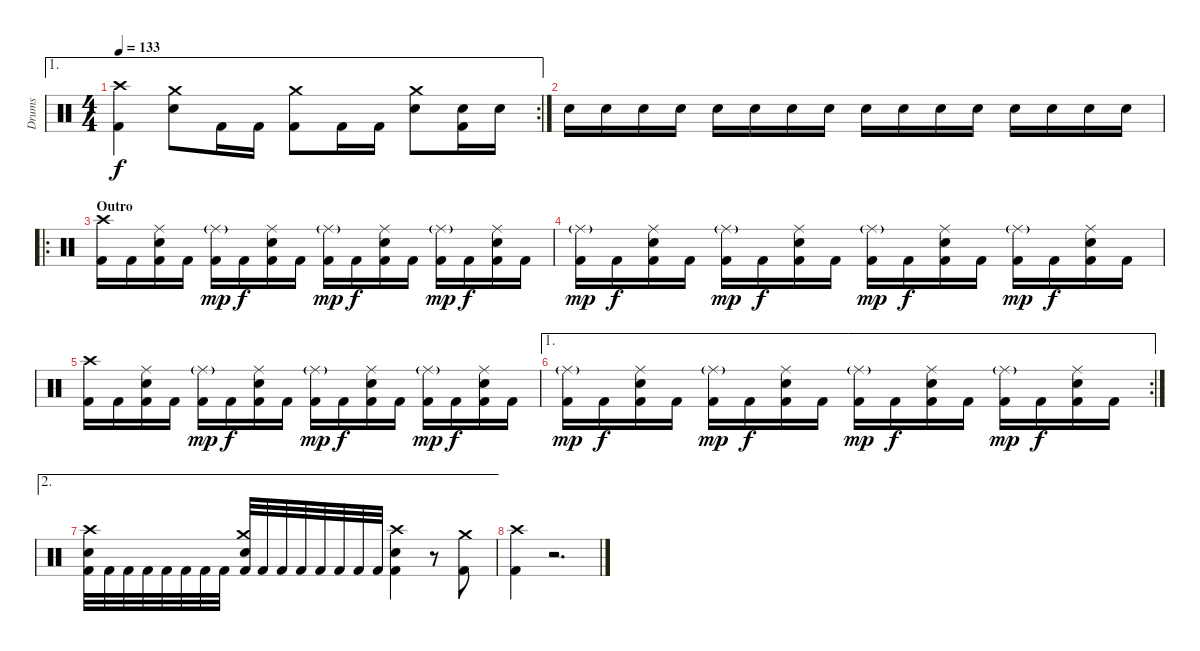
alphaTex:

\track ("Drums" "Drums") {instrument percussion}
\staff {score}
\articulation defaults
\ae 1
\rc 2
\ts (4 4)
\tempo 133
\clef neutral
\ks c
("Crash high (hit)" "Kick (hit) 2").4{dy f} ("Crash medium (hit)" "Electric Snare (hit)").8 "Kick (hit) 2".16 "Kick (hit) 2".16 ("Crash medium (hit)" "Kick (hit) 2").8 "Kick (hit) 2".16 "Kick (hit) 2".16 ("Crash medium (hit)" "Electric Snare (hit)").8 ("Electric Snare (hit)" "Kick (hit) 2").16 "Electric Snare (hit)".16 |
"Electric Snare (hit)".16 "Electric Snare (hit)".16 "Electric Snare (hit)".16 "Electric Snare (hit)".16 "Electric Snare (hit)".16 "Electric Snare (hit)".16 "Electric Snare (hit)".16 "Electric Snare (hit)".16 "Electric Snare (hit)".16 "Electric Snare (hit)".16 "Electric Snare (hit)".16 "Electric Snare (hit)".16 "Electric Snare (hit)".16 "Electric Snare (hit)".16 "Electric Snare (hit)".16 "Electric Snare (hit)".16 |
\ro
\section ("" "Outro")
("Crash high (hit)" "Kick (hit) 2").16 "Kick (hit) 2".16 ("Ride (middle)" "Electric Snare (hit)" "Kick (hit) 2").16 "Kick (hit) 2".16 ("Ride (middle)"{g} "Kick (hit) 2").16{dy mp} "Kick (hit) 2".16{dy f} ("Ride (middle)" "Electric Snare (hit)" "Kick (hit) 2").16 "Kick (hit) 2".16 ("Ride (middle)"{g} "Kick (hit) 2").16{dy mp} "Kick (hit) 2".16{dy f} ("Ride (middle)" "Electric Snare (hit)" "Kick (hit) 2").16 "Kick (hit) 2".16 ("Ride (middle)"{g} "Kick (hit) 2").16{dy mp} "Kick (hit) 2".16{dy f} ("Ride (middle)" "Electric Snare (hit)" "Kick (hit) 2").16 "Kick (hit) 2".16 |
("Ride (middle)"{g} "Kick (hit) 2").16{dy mp} "Kick (hit) 2".16{dy f} ("Ride (middle)" "Electric Snare (hit)" "Kick (hit) 2").16 "Kick (hit) 2".16 ("Ride (middle)"{g} "Kick (hit) 2").16{dy mp} "Kick (hit) 2".16{dy f} ("Ride (middle)" "Electric Snare (hit)" "Kick (hit) 2").16 "Kick (hit) 2".16 ("Ride (middle)"{g} "Kick (hit) 2").16{dy mp} "Kick (hit) 2".16{dy f} ("Ride (middle)" "Electric Snare (hit)" "Kick (hit) 2").16 "Kick (hit) 2".16 ("Ride (middle)"{g} "Kick (hit) 2").16{dy mp} "Kick (hit) 2".16{dy f} ("Ride (middle)" "Electric Snare (hit)" "Kick (hit) 2").16 "Kick (hit) 2".16 |
("Crash high (hit)" "Kick (hit) 2").16 "Kick (hit) 2".16 ("Ride (middle)" "Electric Snare (hit)" "Kick (hit) 2").16 "Kick (hit) 2".16 ("Ride (middle)"{g} "Kick (hit) 2").16{dy mp} "Kick (hit) 2".16{dy f} ("Ride (middle)" "Electric Snare (hit)" "Kick (hit) 2").16 "Kick (hit) 2".16 ("Ride (middle)"{g} "Kick (hit) 2").16{dy mp} "Kick (hit) 2".16{dy f} ("Ride (middle)" "Electric Snare (hit)" "Kick (hit) 2").16 "Kick (hit) 2".16 ("Ride (middle)"{g} "Kick (hit) 2").16{dy mp} "Kick (hit) 2".16{dy f} ("Ride (middle)" "Electric Snare (hit)" "Kick (hit) 2").16 "Kick (hit) 2".16 |
\ae 1
\rc 2
("Ride (middle)"{g} "Kick (hit) 2").16{dy mp} "Kick (hit) 2".16{dy f} ("Ride (middle)" "Electric Snare (hit)" "Kick (hit) 2").16 "Kick (hit) 2".16 ("Ride (middle)"{g} "Kick (hit) 2").16{dy mp} "Kick (hit) 2".16{dy f} ("Ride (middle)" "Electric Snare (hit)" "Kick (hit) 2").16 "Kick (hit) 2".16 ("Ride (middle)"{g} "Kick (hit) 2").16{dy mp} "Kick (hit) 2".16{dy f} ("Ride (middle)" "Electric Snare (hit)" "Kick (hit) 2").16 "Kick (hit) 2".16 ("Ride (middle)"{g} "Kick (hit) 2").16{dy mp} "Kick (hit) 2".16{dy f} ("Ride (middle)" "Electric Snare (hit)" "Kick (hit) 2").16 "Kick (hit) 2".16 |
\ae 2
("Crash high (hit)" "Electric Snare (hit)" "Kick (hit) 2").32 "Kick (hit) 2".32 "Kick (hit) 2".32 "Kick (hit) 2".32 "Kick (hit) 2".32 "Kick (hit) 2".32 "Kick (hit) 2".32 "Kick (hit) 2".32 ("Crash medium (hit)" "Electric Snare (hit)" "Kick (hit) 2").32 "Kick (hit) 2".32 "Kick (hit) 2".32 "Kick (hit) 2".32 "Kick (hit) 2".32 "Kick (hit) 2".32 "Kick (hit) 2".32 "Kick (hit) 2".32 ("Crash high (hit)" "Electric Snare (hit)" "Kick (hit) 2").4 r.8 ("Crash medium (hit)" "Kick (hit) 2").8 |
("Crash high (hit)" "Kick (hit) 2").4 r.2{d}
